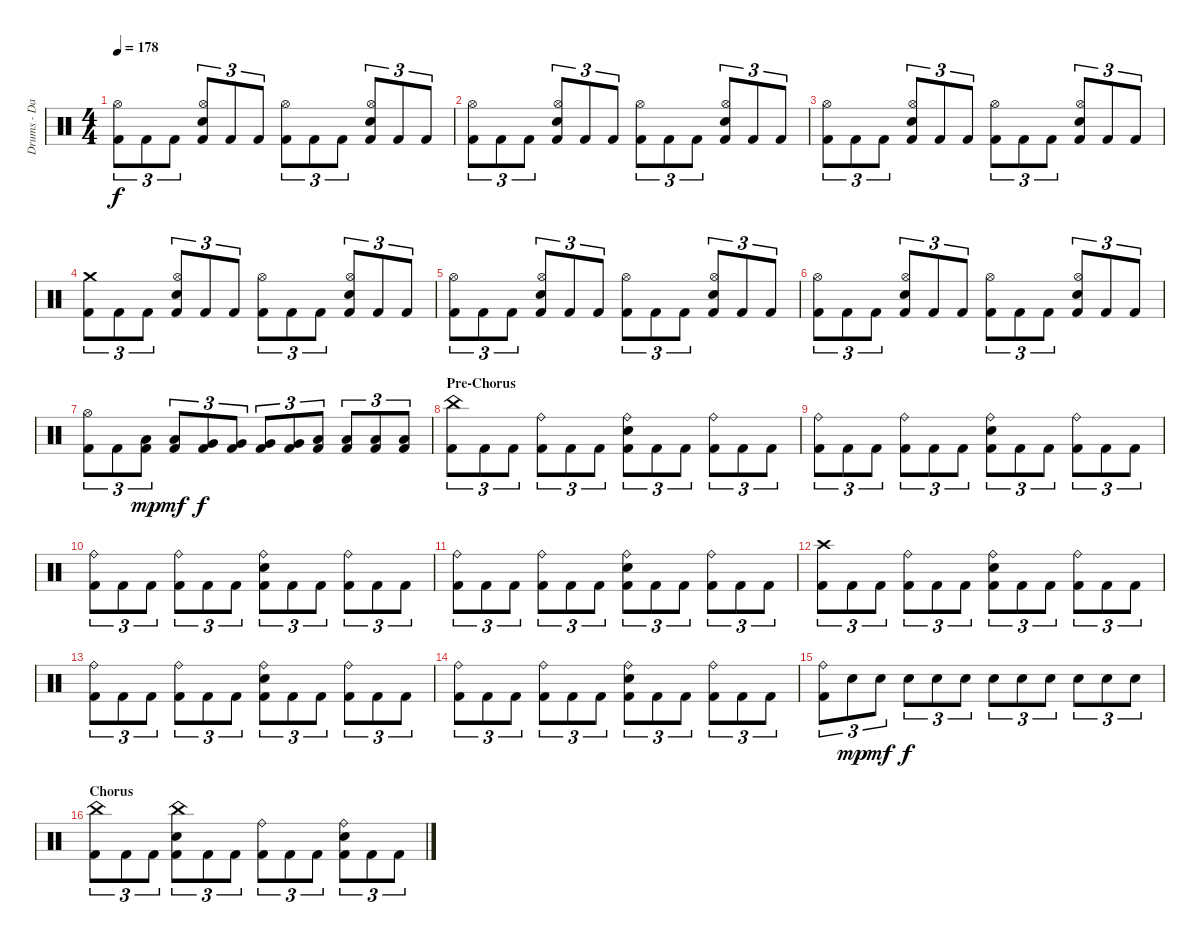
\track ("Drums - Dan Zimmermann" "Drums - Da") {instrument percussion}
\staff {score}
\articulation defaults
\ts (4 4)
\tempo 178
\clef neutral
\ks c
("Kick (hit) 2" "Hi-Hat (open)").8{tu (3 2) dy f} "Kick (hit) 2".8{tu (3 2)} "Kick (hit) 2".8{tu (3 2)} ("Kick (hit) 2" "Electric Snare (hit)" "Hi-Hat (open)").8{tu (3 2)} "Kick (hit) 2".8{tu (3 2)} "Kick (hit) 2".8{tu (3 2)} ("Kick (hit) 2" "Hi-Hat (open)").8{tu (3 2)} "Kick (hit) 2".8{tu (3 2)} "Kick (hit) 2".8{tu (3 2)} ("Kick (hit) 2" "Electric Snare (hit)" "Hi-Hat (open)").8{tu (3 2)} "Kick (hit) 2".8{tu (3 2)} "Kick (hit) 2".8{tu (3 2)} |
("Kick (hit) 2" "Hi-Hat (open)").8{tu (3 2)} "Kick (hit) 2".8{tu (3 2)} "Kick (hit) 2".8{tu (3 2)} ("Kick (hit) 2" "Electric Snare (hit)" "Hi-Hat (open)").8{tu (3 2)} "Kick (hit) 2".8{tu (3 2)} "Kick (hit) 2".8{tu (3 2)} ("Kick (hit) 2" "Hi-Hat (open)").8{tu (3 2)} "Kick (hit) 2".8{tu (3 2)} "Kick (hit) 2".8{tu (3 2)} ("Kick (hit) 2" "Electric Snare (hit)" "Hi-Hat (open)").8{tu (3 2)} "Kick (hit) 2".8{tu (3 2)} "Kick (hit) 2".8{tu (3 2)} |
("Kick (hit) 2" "Hi-Hat (open)").8{tu (3 2)} "Kick (hit) 2".8{tu (3 2)} "Kick (hit) 2".8{tu (3 2)} ("Kick (hit) 2" "Electric Snare (hit)" "Hi-Hat (open)").8{tu (3 2)} "Kick (hit) 2".8{tu (3 2)} "Kick (hit) 2".8{tu (3 2)} ("Kick (hit) 2" "Hi-Hat (open)").8{tu (3 2)} "Kick (hit) 2".8{tu (3 2)} "Kick (hit) 2".8{tu (3 2)} ("Kick (hit) 2" "Electric Snare (hit)" "Hi-Hat (open)").8{tu (3 2)} "Kick (hit) 2".8{tu (3 2)} "Kick (hit) 2".8{tu (3 2)} |
("Kick (hit) 2" "Crash medium (hit)").8{tu (3 2)} "Kick (hit) 2".8{tu (3 2)} "Kick (hit) 2".8{tu (3 2)} ("Kick (hit) 2" "Electric Snare (hit)" "Hi-Hat (open)").8{tu (3 2)} "Kick (hit) 2".8{tu (3 2)} "Kick (hit) 2".8{tu (3 2)} ("Kick (hit) 2" "Hi-Hat (open)").8{tu (3 2)} "Kick (hit) 2".8{tu (3 2)} "Kick (hit) 2".8{tu (3 2)} ("Kick (hit) 2" "Electric Snare (hit)" "Hi-Hat (open)").8{tu (3 2)} "Kick (hit) 2".8{tu (3 2)} "Kick (hit) 2".8{tu (3 2)} |
("Kick (hit) 2" "Hi-Hat (open)").8{tu (3 2)} "Kick (hit) 2".8{tu (3 2)} "Kick (hit) 2".8{tu (3 2)} ("Kick (hit) 2" "Electric Snare (hit)" "Hi-Hat (open)").8{tu (3 2)} "Kick (hit) 2".8{tu (3 2)} "Kick (hit) 2".8{tu (3 2)} ("Kick (hit) 2" "Hi-Hat (open)").8{tu (3 2)} "Kick (hit) 2".8{tu (3 2)} "Kick (hit) 2".8{tu (3 2)} ("Kick (hit) 2" "Electric Snare (hit)" "Hi-Hat (open)").8{tu (3 2)} "Kick (hit) 2".8{tu (3 2)} "Kick (hit) 2".8{tu (3 2)} |
("Kick (hit) 2" "Hi-Hat (open)").8{tu (3 2)} "Kick (hit) 2".8{tu (3 2)} "Kick (hit) 2".8{tu (3 2)} ("Kick (hit) 2" "Electric Snare (hit)" "Hi-Hat (open)").8{tu (3 2)} "Kick (hit) 2".8{tu (3 2)} "Kick (hit) 2".8{tu (3 2)} ("Kick (hit) 2" "Hi-Hat (open)").8{tu (3 2)} "Kick (hit) 2".8{tu (3 2)} "Kick (hit) 2".8{tu (3 2)} ("Kick (hit) 2" "Electric Snare (hit)" "Hi-Hat (open)").8{tu (3 2)} "Kick (hit) 2".8{tu (3 2)} "Kick (hit) 2".8{tu (3 2)} |
("Kick (hit) 2" "Hi-Hat (open)").8{tu (3 2)} "Kick (hit) 2".8{tu (3 2)} ("Kick (hit) 2" "Low Tom (hit)").8{tu (3 2) dy mp} ("Kick (hit) 2" "Low Tom (hit)").8{tu (3 2) dy mf} ("Kick (hit) 2" "Very Low Tom (hit)").8{tu (3 2) dy f} ("Kick (hit) 2" "Very Low Tom (hit)").8{tu (3 2)} ("Kick (hit) 2" "Very Low Tom (hit)").8{tu (3 2)} ("Kick (hit) 2" "Very Low Tom (hit)").8{tu (3 2)} ("Kick (hit) 2" "Low Floor Tom (hit)").8{tu (3 2)} ("Kick (hit) 2" "Low Floor Tom (hit)").8{tu (3 2)} ("Kick (hit) 2" "Low Floor Tom (hit)").8{tu (3 2)} ("Kick (hit) 2" "Low Floor Tom (hit)").8{tu (3 2)} |
\section ("" "Pre-Chorus")
("Kick (hit) 2" "China (hit)").8{tu (3 2)} "Kick (hit) 2".8{tu (3 2)} "Kick (hit) 2".8{tu (3 2)} ("Kick (hit) 2" "Ride (bell)").8{tu (3 2)} "Kick (hit) 2".8{tu (3 2)} "Kick (hit) 2".8{tu (3 2)} ("Kick (hit) 2" "Electric Snare (hit)" "Ride (bell)").8{tu (3 2)} "Kick (hit) 2".8{tu (3 2)} "Kick (hit) 2".8{tu (3 2)} ("Kick (hit) 2" "Ride (bell)").8{tu (3 2)} "Kick (hit) 2".8{tu (3 2)} "Kick (hit) 2".8{tu (3 2)} |
("Kick (hit) 2" "Ride (bell)").8{tu (3 2)} "Kick (hit) 2".8{tu (3 2)} "Kick (hit) 2".8{tu (3 2)} ("Kick (hit) 2" "Ride (bell)").8{tu (3 2)} "Kick (hit) 2".8{tu (3 2)} "Kick (hit) 2".8{tu (3 2)} ("Kick (hit) 2" "Electric Snare (hit)" "Ride (bell)").8{tu (3 2)} "Kick (hit) 2".8{tu (3 2)} "Kick (hit) 2".8{tu (3 2)} ("Kick (hit) 2" "Ride (bell)").8{tu (3 2)} "Kick (hit) 2".8{tu (3 2)} "Kick (hit) 2".8{tu (3 2)} |
("Kick (hit) 2" "Ride (bell)").8{tu (3 2)} "Kick (hit) 2".8{tu (3 2)} "Kick (hit) 2".8{tu (3 2)} ("Kick (hit) 2" "Ride (bell)").8{tu (3 2)} "Kick (hit) 2".8{tu (3 2)} "Kick (hit) 2".8{tu (3 2)} ("Kick (hit) 2" "Electric Snare (hit)" "Ride (bell)").8{tu (3 2)} "Kick (hit) 2".8{tu (3 2)} "Kick (hit) 2".8{tu (3 2)} ("Kick (hit) 2" "Ride (bell)").8{tu (3 2)} "Kick (hit) 2".8{tu (3 2)} "Kick (hit) 2".8{tu (3 2)} |
("Kick (hit) 2" "Ride (bell)").8{tu (3 2)} "Kick (hit) 2".8{tu (3 2)} "Kick (hit) 2".8{tu (3 2)} ("Kick (hit) 2" "Ride (bell)").8{tu (3 2)} "Kick (hit) 2".8{tu (3 2)} "Kick (hit) 2".8{tu (3 2)} ("Kick (hit) 2" "Electric Snare (hit)" "Ride (bell)").8{tu (3 2)} "Kick (hit) 2".8{tu (3 2)} "Kick (hit) 2".8{tu (3 2)} ("Kick (hit) 2" "Ride (bell)").8{tu (3 2)} "Kick (hit) 2".8{tu (3 2)} "Kick (hit) 2".8{tu (3 2)} |
("Kick (hit) 2" "Crash high (hit)").8{tu (3 2)} "Kick (hit) 2".8{tu (3 2)} "Kick (hit) 2".8{tu (3 2)} ("Kick (hit) 2" "Ride (bell)").8{tu (3 2)} "Kick (hit) 2".8{tu (3 2)} "Kick (hit) 2".8{tu (3 2)} ("Kick (hit) 2" "Electric Snare (hit)" "Ride (bell)").8{tu (3 2)} "Kick (hit) 2".8{tu (3 2)} "Kick (hit) 2".8{tu (3 2)} ("Kick (hit) 2" "Ride (bell)").8{tu (3 2)} "Kick (hit) 2".8{tu (3 2)} "Kick (hit) 2".8{tu (3 2)} |
("Kick (hit) 2" "Ride (bell)").8{tu (3 2)} "Kick (hit) 2".8{tu (3 2)} "Kick (hit) 2".8{tu (3 2)} ("Kick (hit) 2" "Ride (bell)").8{tu (3 2)} "Kick (hit) 2".8{tu (3 2)} "Kick (hit) 2".8{tu (3 2)} ("Kick (hit) 2" "Electric Snare (hit)" "Ride (bell)").8{tu (3 2)} "Kick (hit) 2".8{tu (3 2)} "Kick (hit) 2".8{tu (3 2)} ("Kick (hit) 2" "Ride (bell)").8{tu (3 2)} "Kick (hit) 2".8{tu (3 2)} "Kick (hit) 2".8{tu (3 2)} |
("Kick (hit) 2" "Ride (bell)").8{tu (3 2)} "Kick (hit) 2".8{tu (3 2)} "Kick (hit) 2".8{tu (3 2)} ("Kick (hit) 2" "Ride (bell)").8{tu (3 2)} "Kick (hit) 2".8{tu (3 2)} "Kick (hit) 2".8{tu (3 2)} ("Kick (hit) 2" "Electric Snare (hit)" "Ride (bell)").8{tu (3 2)} "Kick (hit) 2".8{tu (3 2)} "Kick (hit) 2".8{tu (3 2)} ("Kick (hit) 2" "Ride (bell)").8{tu (3 2)} "Kick (hit) 2".8{tu (3 2)} "Kick (hit) 2".8{tu (3 2)} |
("Kick (hit) 2" "Ride (bell)").8{tu (3 2)} "Electric Snare (hit)".8{tu (3 2) dy mp} "Electric Snare (hit)".8{tu (3 2) dy mf} "Electric Snare (hit)".8{tu (3 2) dy f} "Electric Snare (hit)".8{tu (3 2)} "Electric Snare (hit)".8{tu (3 2)} "Electric Snare (hit)".8{tu (3 2)} "Electric Snare (hit)".8{tu (3 2)} "Electric Snare (hit)".8{tu (3 2)} "Electric Snare (hit)".8{tu (3 2)} "Electric Snare (hit)".8{tu (3 2)} "Electric Snare (hit)".8{tu (3 2)} |
\section ("" "Chorus")
("Kick (hit) 2" "China (hit)").8{tu (3 2)} "Kick (hit) 2".8{tu (3 2)} "Kick (hit) 2".8{tu (3 2)} ("Kick (hit) 2" "Electric Snare (hit)" "China (hit)").8{tu (3 2)} "Kick (hit) 2".8{tu (3 2)} "Kick (hit) 2".8{tu (3 2)} ("Kick (hit) 2" "Ride (bell)").8{tu (3 2)} "Kick (hit) 2".8{tu (3 2)} "Kick (hit) 2".8{tu (3 2)} ("Kick (hit) 2" "Electric Snare (hit)" "Ride (bell)").8{tu (3 2)} "Kick (hit) 2".8{tu (3 2)} "Kick (hit) 2".8{tu (3 2)}
